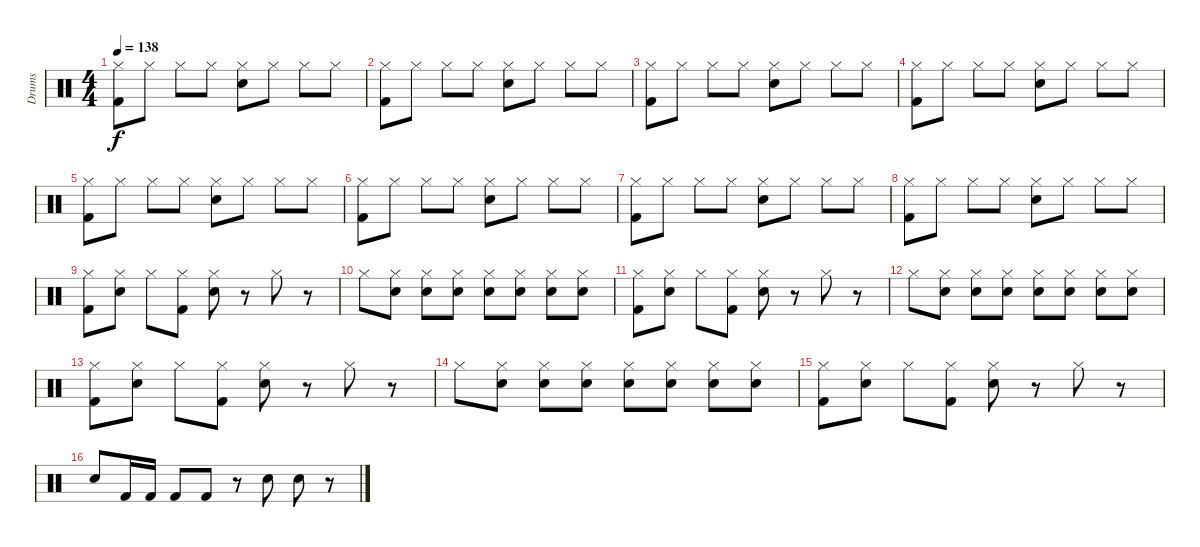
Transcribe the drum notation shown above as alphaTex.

\track ("Drums" "Drums") {instrument percussion}
\staff {score}
\articulation defaults
\ts (4 4)
\tempo 138
\clef neutral
\ks c
("Hi-Hat (closed)" "Kick (hit) 2").8{dy f} "Hi-Hat (closed)".8 "Hi-Hat (closed)".8 "Hi-Hat (closed)".8 ("Hi-Hat (closed)" "Snare (hit) 2").8 "Hi-Hat (closed)".8 "Hi-Hat (closed)".8 "Hi-Hat (closed)".8 |
("Hi-Hat (closed)" "Kick (hit) 2").8 "Hi-Hat (closed)".8 "Hi-Hat (closed)".8 "Hi-Hat (closed)".8 ("Hi-Hat (closed)" "Snare (hit) 2").8 "Hi-Hat (closed)".8 "Hi-Hat (closed)".8 "Hi-Hat (closed)".8 |
("Hi-Hat (closed)" "Kick (hit) 2").8 "Hi-Hat (closed)".8 "Hi-Hat (closed)".8 "Hi-Hat (closed)".8 ("Hi-Hat (closed)" "Snare (hit) 2").8 "Hi-Hat (closed)".8 "Hi-Hat (closed)".8 "Hi-Hat (closed)".8 |
("Hi-Hat (closed)" "Kick (hit) 2").8 "Hi-Hat (closed)".8 "Hi-Hat (closed)".8 "Hi-Hat (closed)".8 ("Hi-Hat (closed)" "Snare (hit) 2").8 "Hi-Hat (closed)".8 "Hi-Hat (closed)".8 "Hi-Hat (closed)".8 |
("Hi-Hat (closed)" "Kick (hit) 2").8 "Hi-Hat (closed)".8 "Hi-Hat (closed)".8 "Hi-Hat (closed)".8 ("Hi-Hat (closed)" "Snare (hit) 2").8 "Hi-Hat (closed)".8 "Hi-Hat (closed)".8 "Hi-Hat (closed)".8 |
("Hi-Hat (closed)" "Kick (hit) 2").8 "Hi-Hat (closed)".8 "Hi-Hat (closed)".8 "Hi-Hat (closed)".8 ("Hi-Hat (closed)" "Snare (hit) 2").8 "Hi-Hat (closed)".8 "Hi-Hat (closed)".8 "Hi-Hat (closed)".8 |
("Hi-Hat (closed)" "Kick (hit) 2").8 "Hi-Hat (closed)".8 "Hi-Hat (closed)".8 "Hi-Hat (closed)".8 ("Hi-Hat (closed)" "Snare (hit) 2").8 "Hi-Hat (closed)".8 "Hi-Hat (closed)".8 "Hi-Hat (closed)".8 |
("Hi-Hat (closed)" "Kick (hit) 2").8 "Hi-Hat (closed)".8 "Hi-Hat (closed)".8 "Hi-Hat (closed)".8 ("Hi-Hat (closed)" "Snare (hit) 2").8 "Hi-Hat (closed)".8 "Hi-Hat (closed)".8 "Hi-Hat (closed)".8 |
("Hi-Hat (closed)" "Kick (hit) 2").8 ("Hi-Hat (closed)" "Snare (hit) 2").8 "Hi-Hat (closed)".8 ("Hi-Hat (closed)" "Kick (hit) 2").8 ("Hi-Hat (closed)" "Snare (hit) 2").8 r.8 "Hi-Hat (closed)".8 r.8 |
"Hi-Hat (closed)".8 ("Hi-Hat (closed)" "Snare (hit) 2").8 ("Hi-Hat (closed)" "Snare (hit) 2").8 ("Hi-Hat (closed)" "Snare (hit) 2").8 ("Hi-Hat (closed)" "Snare (hit) 2").8 ("Hi-Hat (closed)" "Snare (hit) 2").8 ("Hi-Hat (closed)" "Snare (hit) 2").8 ("Hi-Hat (closed)" "Snare (hit) 2").8 |
("Hi-Hat (closed)" "Kick (hit) 2").8 ("Hi-Hat (closed)" "Snare (hit) 2").8 "Hi-Hat (closed)".8 ("Hi-Hat (closed)" "Kick (hit) 2").8 ("Hi-Hat (closed)" "Snare (hit) 2").8 r.8 "Hi-Hat (closed)".8 r.8 |
"Hi-Hat (closed)".8 ("Hi-Hat (closed)" "Snare (hit) 2").8 ("Hi-Hat (closed)" "Snare (hit) 2").8 ("Hi-Hat (closed)" "Snare (hit) 2").8 ("Hi-Hat (closed)" "Snare (hit) 2").8 ("Hi-Hat (closed)" "Snare (hit) 2").8 ("Hi-Hat (closed)" "Snare (hit) 2").8 ("Hi-Hat (closed)" "Snare (hit) 2").8 |
("Hi-Hat (closed)" "Kick (hit) 2").8 ("Hi-Hat (closed)" "Snare (hit) 2").8 "Hi-Hat (closed)".8 ("Hi-Hat (closed)" "Kick (hit) 2").8 ("Hi-Hat (closed)" "Snare (hit) 2").8 r.8 "Hi-Hat (closed)".8 r.8 |
"Hi-Hat (closed)".8 ("Hi-Hat (closed)" "Snare (hit) 2").8 ("Hi-Hat (closed)" "Snare (hit) 2").8 ("Hi-Hat (closed)" "Snare (hit) 2").8 ("Hi-Hat (closed)" "Snare (hit) 2").8 ("Hi-Hat (closed)" "Snare (hit) 2").8 ("Hi-Hat (closed)" "Snare (hit) 2").8 ("Hi-Hat (closed)" "Snare (hit) 2").8 |
("Hi-Hat (closed)" "Kick (hit) 2").8 ("Hi-Hat (closed)" "Snare (hit) 2").8 "Hi-Hat (closed)".8 ("Hi-Hat (closed)" "Kick (hit) 2").8 ("Hi-Hat (closed)" "Snare (hit) 2").8 r.8 "Hi-Hat (closed)".8 r.8 |
"Snare (hit) 2".8 "Kick (hit) 2".16 "Kick (hit) 2".16 "Kick (hit) 2".8 "Kick (hit) 2".8 r.8 "Snare (hit) 2".8 "Snare (hit) 2".8 r.8
